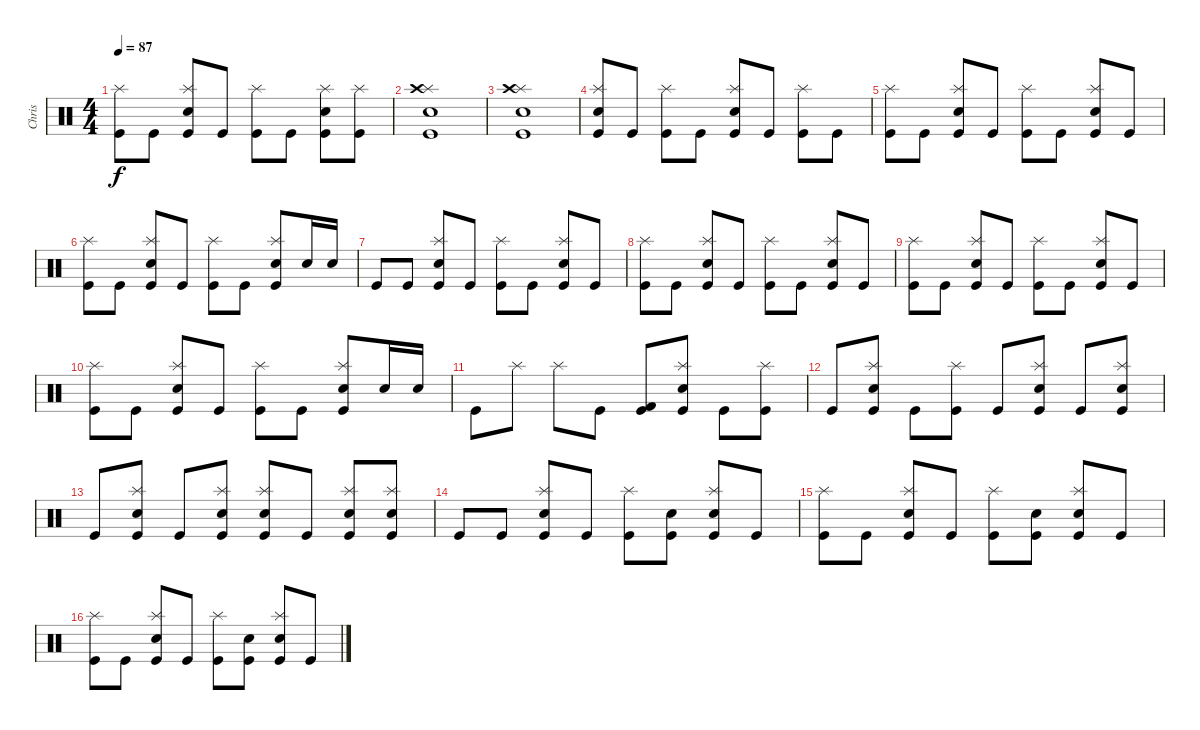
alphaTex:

\track ("Chris" "Chris") {instrument percussion}
\staff {score}
\articulation defaults
\ts (4 4)
\tempo 87
\clef neutral
\ks c
("Kick (hit)" "Splash (hit)").8{dy f} "Kick (hit)".8 ("Kick (hit)" "Splash (hit)" "Snare (hit) 2").8 "Kick (hit)".8 ("Kick (hit)" "Splash (hit)").8 "Kick (hit)".8 ("Kick (hit)" "Splash (hit)" "Snare (hit) 2").8 ("Kick (hit)" "Splash (hit)").8 |
("Kick (hit)" "Splash (hit)" "Crash high (hit)" "Snare (hit) 2").1 |
("Kick (hit)" "Splash (hit)" "Crash high (hit)" "Snare (hit) 2").1 |
("Kick (hit)" "Splash (hit)" "Snare (hit) 2").8 "Kick (hit)".8 ("Kick (hit)" "Splash (hit)").8 "Kick (hit)".8 ("Kick (hit)" "Splash (hit)" "Snare (hit) 2").8 "Kick (hit)".8 ("Kick (hit)" "Splash (hit)").8 "Kick (hit)".8 |
("Kick (hit)" "Splash (hit)").8 "Kick (hit)".8 ("Kick (hit)" "Splash (hit)" "Snare (hit) 2").8 "Kick (hit)".8 ("Kick (hit)" "Splash (hit)").8 "Kick (hit)".8 ("Kick (hit)" "Splash (hit)" "Snare (hit) 2").8 "Kick (hit)".8 |
("Kick (hit)" "Splash (hit)").8 "Kick (hit)".8 ("Kick (hit)" "Splash (hit)" "Snare (hit) 2").8 "Kick (hit)".8 ("Kick (hit)" "Splash (hit)").8 "Kick (hit)".8 ("Kick (hit)" "Splash (hit)" "Snare (hit) 2").8 "Snare (hit) 2".16 "Snare (hit) 2".16 |
"Kick (hit)".8 "Kick (hit)".8 ("Kick (hit)" "Splash (hit)" "Snare (hit) 2").8 "Kick (hit)".8 ("Kick (hit)" "Splash (hit)").8 "Kick (hit)".8 ("Kick (hit)" "Splash (hit)" "Snare (hit) 2").8 "Kick (hit)".8 |
("Kick (hit)" "Splash (hit)").8 "Kick (hit)".8 ("Kick (hit)" "Splash (hit)" "Snare (hit) 2").8 "Kick (hit)".8 ("Kick (hit)" "Splash (hit)").8 "Kick (hit)".8 ("Kick (hit)" "Splash (hit)" "Snare (hit) 2").8 "Kick (hit)".8 |
("Kick (hit)" "Splash (hit)").8 "Kick (hit)".8 ("Kick (hit)" "Splash (hit)" "Snare (hit) 2").8 "Kick (hit)".8 ("Kick (hit)" "Splash (hit)").8 "Kick (hit)".8 ("Kick (hit)" "Splash (hit)" "Snare (hit) 2").8 "Kick (hit)".8 |
("Kick (hit)" "Splash (hit)").8 "Kick (hit)".8 ("Kick (hit)" "Splash (hit)" "Snare (hit) 2").8 "Kick (hit)".8 ("Kick (hit)" "Splash (hit)").8 "Kick (hit)".8 ("Kick (hit)" "Splash (hit)" "Snare (hit) 2").8 "Snare (hit) 2".16 "Snare (hit) 2".16 |
"Kick (hit)".8 "Splash (hit)".8 "Splash (hit)".8 "Kick (hit)".8 ("Kick (hit)" "Kick (hit) 2").8 ("Kick (hit)" "Splash (hit)" "Snare (hit) 2").8 "Kick (hit)".8 ("Kick (hit)" "Splash (hit)").8 |
"Kick (hit)".8 ("Kick (hit)" "Splash (hit)" "Snare (hit) 2").8 "Kick (hit)".8 ("Kick (hit)" "Splash (hit)").8 "Kick (hit)".8 ("Kick (hit)" "Splash (hit)" "Snare (hit) 2").8 "Kick (hit)".8 ("Kick (hit)" "Splash (hit)" "Snare (hit) 2").8 |
"Kick (hit)".8 ("Kick (hit)" "Splash (hit)" "Snare (hit) 2").8 "Kick (hit)".8 ("Kick (hit)" "Splash (hit)" "Snare (hit) 2").8 ("Kick (hit)" "Splash (hit)" "Snare (hit) 2").8 "Kick (hit)".8 ("Kick (hit)" "Splash (hit)" "Snare (hit) 2").8 ("Kick (hit)" "Splash (hit)" "Snare (hit) 2").8 |
"Kick (hit)".8 "Kick (hit)".8 ("Kick (hit)" "Splash (hit)" "Snare (hit) 2").8 "Kick (hit)".8 ("Kick (hit)" "Splash (hit)").8 ("Kick (hit)" "Snare (hit) 2").8 ("Kick (hit)" "Splash (hit)" "Snare (hit) 2").8 "Kick (hit)".8 |
("Kick (hit)" "Splash (hit)").8 "Kick (hit)".8 ("Kick (hit)" "Splash (hit)" "Snare (hit) 2").8 "Kick (hit)".8 ("Kick (hit)" "Splash (hit)").8 ("Kick (hit)" "Snare (hit) 2").8 ("Kick (hit)" "Splash (hit)" "Snare (hit) 2").8 "Kick (hit)".8 |
("Kick (hit)" "Splash (hit)").8 "Kick (hit)".8 ("Kick (hit)" "Splash (hit)" "Snare (hit) 2").8 "Kick (hit)".8 ("Kick (hit)" "Splash (hit)").8 ("Kick (hit)" "Snare (hit) 2").8 ("Kick (hit)" "Splash (hit)" "Snare (hit) 2").8 "Kick (hit)".8
